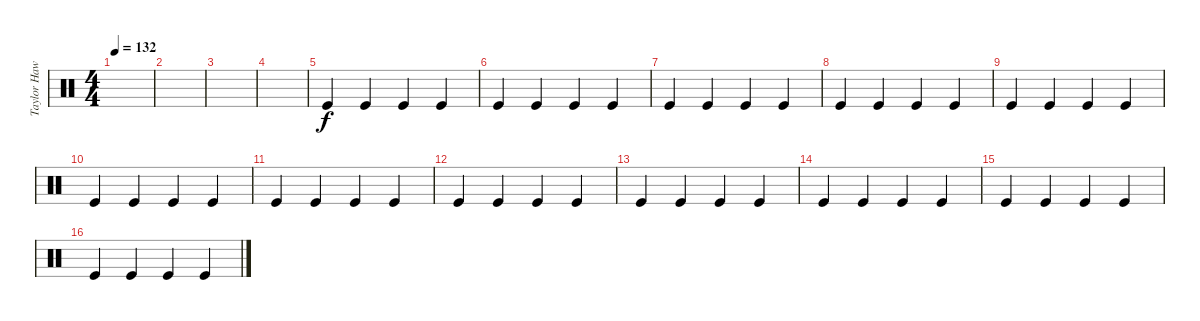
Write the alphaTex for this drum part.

\track ("Taylor Hawkins (Drums)" "Taylor Haw") {instrument percussion}
\staff {score}
\articulation defaults
\ts (4 4)
\tempo 132
\clef neutral
\ks c
|
|
|
|
"Kick (hit)".4 "Kick (hit)".4 "Kick (hit)".4 "Kick (hit)".4 |
"Kick (hit)".4 "Kick (hit)".4 "Kick (hit)".4 "Kick (hit)".4 |
"Kick (hit)".4 "Kick (hit)".4 "Kick (hit)".4 "Kick (hit)".4 |
"Kick (hit)".4 "Kick (hit)".4 "Kick (hit)".4 "Kick (hit)".4 |
"Kick (hit)".4 "Kick (hit)".4 "Kick (hit)".4 "Kick (hit)".4 |
"Kick (hit)".4 "Kick (hit)".4 "Kick (hit)".4 "Kick (hit)".4 |
"Kick (hit)".4 "Kick (hit)".4 "Kick (hit)".4 "Kick (hit)".4 |
"Kick (hit)".4 "Kick (hit)".4 "Kick (hit)".4 "Kick (hit)".4 |
"Kick (hit)".4 "Kick (hit)".4 "Kick (hit)".4 "Kick (hit)".4 |
"Kick (hit)".4 "Kick (hit)".4 "Kick (hit)".4 "Kick (hit)".4 |
"Kick (hit)".4 "Kick (hit)".4 "Kick (hit)".4 "Kick (hit)".4 |
"Kick (hit)".4 "Kick (hit)".4 "Kick (hit)".4 "Kick (hit)".4
